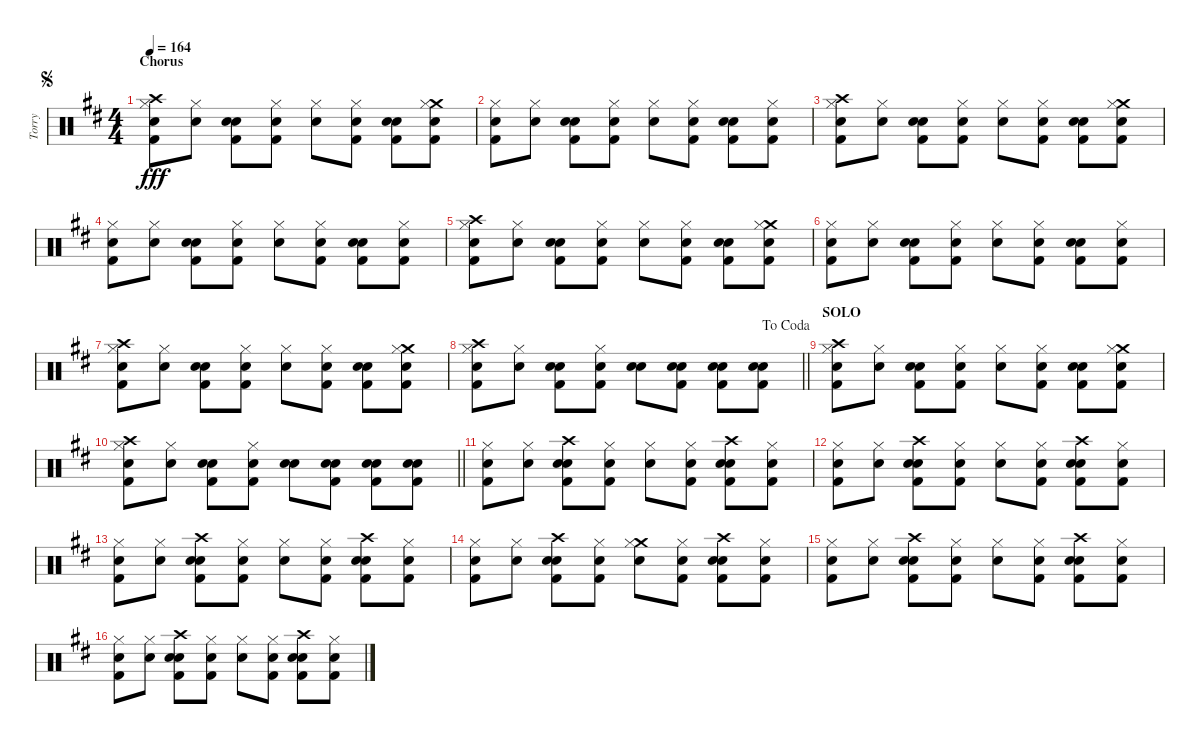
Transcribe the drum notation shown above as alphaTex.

\track ("Torry" "Torry") {instrument percussion}
\staff {score}
\articulation defaults
\ts (4 4)
\section ("" "Chorus")
\jump segno
\tempo 164
\clef neutral
\ks d
("Crash high (hit)" "Hi-Hat (closed)" "Snare (hit) 2" "Kick (hit) 2").8{dy fff} ("Hi-Hat (closed)" "Snare (hit) 2").8 ("Electric Snare (hit)" "Snare (hit) 2" "Kick (hit) 2").8 ("Hi-Hat (closed)" "Snare (hit) 2" "Kick (hit) 2").8 ("Hi-Hat (closed)" "Snare (hit) 2").8 ("Hi-Hat (closed)" "Snare (hit) 2" "Kick (hit) 2").8 ("Electric Snare (hit)" "Snare (hit) 2" "Kick (hit) 2").8 ("Crash medium (hit)" "Hi-Hat (closed)" "Snare (hit) 2" "Kick (hit) 2").8 |
("Hi-Hat (closed)" "Snare (hit) 2" "Kick (hit) 2").8 ("Hi-Hat (closed)" "Snare (hit) 2").8 ("Electric Snare (hit)" "Snare (hit) 2" "Kick (hit) 2").8 ("Hi-Hat (closed)" "Snare (hit) 2" "Kick (hit) 2").8 ("Hi-Hat (closed)" "Snare (hit) 2").8 ("Hi-Hat (closed)" "Snare (hit) 2" "Kick (hit) 2").8 ("Electric Snare (hit)" "Snare (hit) 2" "Kick (hit) 2").8 ("Hi-Hat (closed)" "Snare (hit) 2" "Kick (hit) 2").8 |
("Crash high (hit)" "Hi-Hat (closed)" "Snare (hit) 2" "Kick (hit) 2").8 ("Hi-Hat (closed)" "Snare (hit) 2").8 ("Electric Snare (hit)" "Snare (hit) 2" "Kick (hit) 2").8 ("Hi-Hat (closed)" "Snare (hit) 2" "Kick (hit) 2").8 ("Hi-Hat (closed)" "Snare (hit) 2").8 ("Hi-Hat (closed)" "Snare (hit) 2" "Kick (hit) 2").8 ("Electric Snare (hit)" "Snare (hit) 2" "Kick (hit) 2").8 ("Crash medium (hit)" "Hi-Hat (closed)" "Snare (hit) 2" "Kick (hit) 2").8 |
("Hi-Hat (closed)" "Snare (hit) 2" "Kick (hit) 2").8 ("Hi-Hat (closed)" "Snare (hit) 2").8 ("Electric Snare (hit)" "Snare (hit) 2" "Kick (hit) 2").8 ("Hi-Hat (closed)" "Snare (hit) 2" "Kick (hit) 2").8 ("Hi-Hat (closed)" "Snare (hit) 2").8 ("Hi-Hat (closed)" "Snare (hit) 2" "Kick (hit) 2").8 ("Electric Snare (hit)" "Snare (hit) 2" "Kick (hit) 2").8 ("Hi-Hat (closed)" "Snare (hit) 2" "Kick (hit) 2").8 |
("Crash high (hit)" "Hi-Hat (closed)" "Snare (hit) 2" "Kick (hit) 2").8 ("Hi-Hat (closed)" "Snare (hit) 2").8 ("Electric Snare (hit)" "Snare (hit) 2" "Kick (hit) 2").8 ("Hi-Hat (closed)" "Snare (hit) 2" "Kick (hit) 2").8 ("Hi-Hat (closed)" "Snare (hit) 2").8 ("Hi-Hat (closed)" "Snare (hit) 2" "Kick (hit) 2").8 ("Electric Snare (hit)" "Snare (hit) 2" "Kick (hit) 2").8 ("Crash medium (hit)" "Hi-Hat (closed)" "Snare (hit) 2" "Kick (hit) 2").8 |
("Hi-Hat (closed)" "Snare (hit) 2" "Kick (hit) 2").8 ("Hi-Hat (closed)" "Snare (hit) 2").8 ("Electric Snare (hit)" "Snare (hit) 2" "Kick (hit) 2").8 ("Hi-Hat (closed)" "Snare (hit) 2" "Kick (hit) 2").8 ("Hi-Hat (closed)" "Snare (hit) 2").8 ("Hi-Hat (closed)" "Snare (hit) 2" "Kick (hit) 2").8 ("Electric Snare (hit)" "Snare (hit) 2" "Kick (hit) 2").8 ("Hi-Hat (closed)" "Snare (hit) 2" "Kick (hit) 2").8 |
("Crash high (hit)" "Hi-Hat (closed)" "Snare (hit) 2" "Kick (hit) 2").8 ("Hi-Hat (closed)" "Snare (hit) 2").8 ("Electric Snare (hit)" "Snare (hit) 2" "Kick (hit) 2").8 ("Hi-Hat (closed)" "Snare (hit) 2" "Kick (hit) 2").8 ("Hi-Hat (closed)" "Snare (hit) 2").8 ("Hi-Hat (closed)" "Snare (hit) 2" "Kick (hit) 2").8 ("Electric Snare (hit)" "Snare (hit) 2" "Kick (hit) 2").8 ("Crash medium (hit)" "Hi-Hat (closed)" "Snare (hit) 2" "Kick (hit) 2").8 |
\jump dacoda
\barLineRight lightlight
("Crash high (hit)" "Hi-Hat (closed)" "Snare (hit) 2" "Kick (hit) 2").8 ("Hi-Hat (closed)" "Snare (hit) 2").8 ("Electric Snare (hit)" "Snare (hit) 2" "Kick (hit) 2").8 ("Hi-Hat (closed)" "Snare (hit) 2" "Kick (hit) 2").8 ("Electric Snare (hit)" "Snare (hit) 2").8 ("Electric Snare (hit)" "Snare (hit) 2" "Kick (hit) 2").8 ("Electric Snare (hit)" "Snare (hit) 2" "Kick (hit) 2").8 ("Electric Snare (hit)" "Snare (hit) 2" "Kick (hit) 2").8 |
\section ("" "SOLO")
("Crash high (hit)" "Hi-Hat (closed)" "Snare (hit) 2" "Kick (hit) 2").8 ("Hi-Hat (closed)" "Snare (hit) 2").8 ("Electric Snare (hit)" "Snare (hit) 2" "Kick (hit) 2").8 ("Hi-Hat (closed)" "Snare (hit) 2" "Kick (hit) 2").8 ("Hi-Hat (closed)" "Snare (hit) 2").8 ("Hi-Hat (closed)" "Snare (hit) 2" "Kick (hit) 2").8 ("Electric Snare (hit)" "Snare (hit) 2" "Kick (hit) 2").8 ("Crash medium (hit)" "Hi-Hat (closed)" "Snare (hit) 2" "Kick (hit) 2").8 |
\barLineRight lightlight
("Crash high (hit)" "Hi-Hat (closed)" "Snare (hit) 2" "Kick (hit) 2").8 ("Hi-Hat (closed)" "Snare (hit) 2").8 ("Electric Snare (hit)" "Snare (hit) 2" "Kick (hit) 2").8 ("Hi-Hat (closed)" "Snare (hit) 2" "Kick (hit) 2").8 ("Electric Snare (hit)" "Snare (hit) 2").8 ("Electric Snare (hit)" "Snare (hit) 2" "Kick (hit) 2").8 ("Electric Snare (hit)" "Snare (hit) 2" "Kick (hit) 2").8 ("Electric Snare (hit)" "Snare (hit) 2" "Kick (hit) 2").8 |
("Hi-Hat (closed)" "Snare (hit) 2" "Kick (hit) 2").8 ("Hi-Hat (closed)" "Snare (hit) 2").8 ("Crash high (hit)" "Electric Snare (hit)" "Snare (hit) 2" "Kick (hit) 2").8 ("Hi-Hat (closed)" "Snare (hit) 2" "Kick (hit) 2").8 ("Hi-Hat (closed)" "Snare (hit) 2").8 ("Hi-Hat (closed)" "Snare (hit) 2" "Kick (hit) 2").8 ("Crash high (hit)" "Electric Snare (hit)" "Snare (hit) 2" "Kick (hit) 2").8 ("Hi-Hat (closed)" "Snare (hit) 2" "Kick (hit) 2").8 |
("Hi-Hat (closed)" "Snare (hit) 2" "Kick (hit) 2").8 ("Hi-Hat (closed)" "Snare (hit) 2").8 ("Crash high (hit)" "Electric Snare (hit)" "Snare (hit) 2" "Kick (hit) 2").8 ("Hi-Hat (closed)" "Snare (hit) 2" "Kick (hit) 2").8 ("Hi-Hat (closed)" "Snare (hit) 2").8 ("Hi-Hat (closed)" "Snare (hit) 2" "Kick (hit) 2").8 ("Crash high (hit)" "Electric Snare (hit)" "Snare (hit) 2" "Kick (hit) 2").8 ("Hi-Hat (closed)" "Snare (hit) 2" "Kick (hit) 2").8 |
("Hi-Hat (closed)" "Snare (hit) 2" "Kick (hit) 2").8 ("Hi-Hat (closed)" "Snare (hit) 2").8 ("Crash high (hit)" "Electric Snare (hit)" "Snare (hit) 2" "Kick (hit) 2").8 ("Hi-Hat (closed)" "Snare (hit) 2" "Kick (hit) 2").8 ("Hi-Hat (closed)" "Snare (hit) 2").8 ("Hi-Hat (closed)" "Snare (hit) 2" "Kick (hit) 2").8 ("Crash high (hit)" "Electric Snare (hit)" "Snare (hit) 2" "Kick (hit) 2").8 ("Hi-Hat (closed)" "Snare (hit) 2" "Kick (hit) 2").8 |
("Hi-Hat (closed)" "Snare (hit) 2" "Kick (hit) 2").8 ("Hi-Hat (closed)" "Snare (hit) 2").8 ("Crash high (hit)" "Electric Snare (hit)" "Snare (hit) 2" "Kick (hit) 2").8 ("Hi-Hat (closed)" "Snare (hit) 2" "Kick (hit) 2").8 ("Crash medium (hit)" "Hi-Hat (closed)" "Snare (hit) 2").8 ("Hi-Hat (closed)" "Snare (hit) 2" "Kick (hit) 2").8 ("Crash high (hit)" "Electric Snare (hit)" "Snare (hit) 2" "Kick (hit) 2").8 ("Hi-Hat (closed)" "Snare (hit) 2" "Kick (hit) 2").8 |
("Hi-Hat (closed)" "Snare (hit) 2" "Kick (hit) 2").8 ("Hi-Hat (closed)" "Snare (hit) 2").8 ("Crash high (hit)" "Electric Snare (hit)" "Snare (hit) 2" "Kick (hit) 2").8 ("Hi-Hat (closed)" "Snare (hit) 2" "Kick (hit) 2").8 ("Hi-Hat (closed)" "Snare (hit) 2").8 ("Hi-Hat (closed)" "Snare (hit) 2" "Kick (hit) 2").8 ("Crash high (hit)" "Electric Snare (hit)" "Snare (hit) 2" "Kick (hit) 2").8 ("Hi-Hat (closed)" "Snare (hit) 2" "Kick (hit) 2").8 |
("Hi-Hat (closed)" "Snare (hit) 2" "Kick (hit) 2").8 ("Hi-Hat (closed)" "Snare (hit) 2").8 ("Crash high (hit)" "Electric Snare (hit)" "Snare (hit) 2" "Kick (hit) 2").8 ("Hi-Hat (closed)" "Snare (hit) 2" "Kick (hit) 2").8 ("Hi-Hat (closed)" "Snare (hit) 2").8 ("Hi-Hat (closed)" "Snare (hit) 2" "Kick (hit) 2").8 ("Crash high (hit)" "Electric Snare (hit)" "Snare (hit) 2" "Kick (hit) 2").8 ("Hi-Hat (closed)" "Snare (hit) 2" "Kick (hit) 2").8
